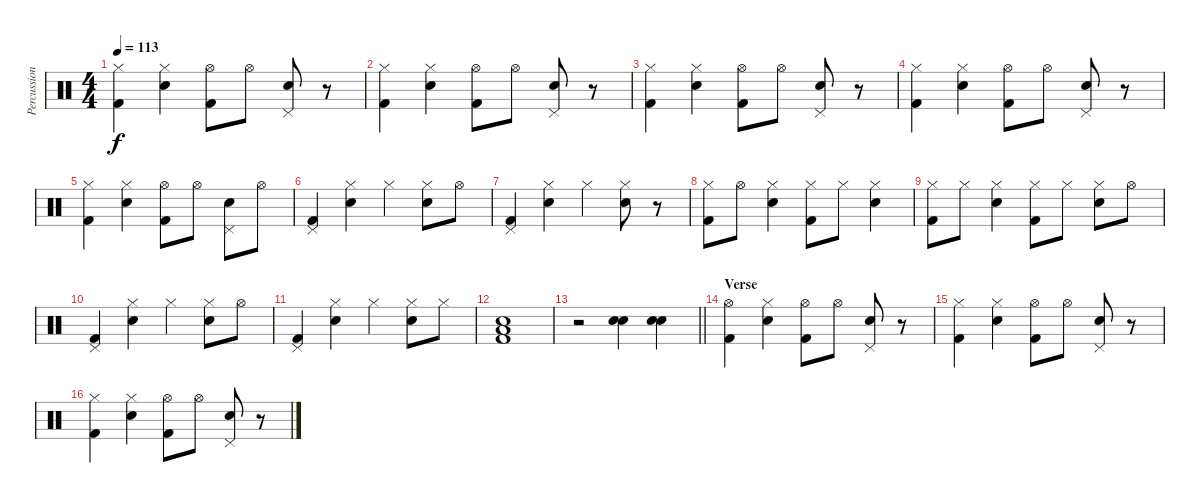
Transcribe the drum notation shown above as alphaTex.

\track ("Percussion" "Percussion") {instrument percussion bank 3}
\staff {score}
\articulation defaults
\ts (4 4)
\tempo 113
\clef neutral
\ks c
("Hi-Hat (closed)" "Kick (hit) 2").4{dy f} ("Hi-Hat (closed)" "Snare (hit) 2").4 ("Hi-Hat (open)" "Kick (hit) 2").8 "Hi-Hat (open)".8 ("Pedal Hi-Hat (hit)" "Snare (hit) 2").8 r.8 |
("Hi-Hat (closed)" "Kick (hit) 2").4 ("Hi-Hat (closed)" "Snare (hit) 2").4 ("Hi-Hat (open)" "Kick (hit) 2").8 "Hi-Hat (open)".8 ("Pedal Hi-Hat (hit)" "Snare (hit) 2").8 r.8 |
("Hi-Hat (closed)" "Kick (hit) 2").4 ("Hi-Hat (closed)" "Snare (hit) 2").4 ("Hi-Hat (open)" "Kick (hit) 2").8 "Hi-Hat (open)".8 ("Pedal Hi-Hat (hit)" "Snare (hit) 2").8 r.8 |
("Hi-Hat (closed)" "Kick (hit) 2").4 ("Hi-Hat (closed)" "Snare (hit) 2").4 ("Hi-Hat (open)" "Kick (hit) 2").8 "Hi-Hat (open)".8 ("Pedal Hi-Hat (hit)" "Snare (hit) 2").8 r.8 |
("Hi-Hat (closed)" "Kick (hit) 2").4 ("Hi-Hat (closed)" "Snare (hit) 2").4 ("Hi-Hat (open)" "Kick (hit) 2").8 "Hi-Hat (open)".8 ("Pedal Hi-Hat (hit)" "Snare (hit) 2").8 "Hi-Hat (open)".8 |
("Pedal Hi-Hat (hit)" "Kick (hit) 2").4 ("Hi-Hat (closed)" "Snare (hit) 2").4 "Hi-Hat (closed)".4 ("Hi-Hat (closed)" "Snare (hit) 2").8 "Hi-Hat (open)".8 |
("Pedal Hi-Hat (hit)" "Kick (hit) 2").4 ("Hi-Hat (closed)" "Snare (hit) 2").4 "Hi-Hat (closed)".4 ("Hi-Hat (closed)" "Snare (hit) 2").8 r.8 |
("Hi-Hat (closed)" "Kick (hit) 2").8 "Hi-Hat (open)".8 ("Hi-Hat (closed)" "Snare (hit) 2").4 ("Hi-Hat (closed)" "Kick (hit) 2").8 "Hi-Hat (closed)".8 ("Hi-Hat (closed)" "Snare (hit) 2").4 |
("Hi-Hat (closed)" "Kick (hit) 2").8 "Hi-Hat (closed)".8 ("Hi-Hat (closed)" "Snare (hit) 2").4 ("Hi-Hat (closed)" "Kick (hit) 2").8 "Hi-Hat (closed)".8 ("Hi-Hat (closed)" "Snare (hit) 2").8 "Hi-Hat (open)".8 |
("Pedal Hi-Hat (hit)" "Kick (hit) 2").4 ("Hi-Hat (closed)" "Snare (hit) 2").4 "Hi-Hat (closed)".4 ("Hi-Hat (closed)" "Snare (hit) 2").8 "Hi-Hat (open)".8 |
("Pedal Hi-Hat (hit)" "Kick (hit) 2").4 ("Hi-Hat (closed)" "Snare (hit) 2").4 "Hi-Hat (closed)".4 ("Hi-Hat (closed)" "Snare (hit) 2").8 "Hi-Hat (closed)".8 |
("Snare (hit) 2" "Low Tom (hit)" "Kick (hit) 2").1 |
\barLineRight lightlight
r.2 ("Snare (hit) 2" "Snare (hit) 2").4 ("Snare (hit) 2" "Snare (hit) 2").4 |
\section ("" "Verse")
("Hi-Hat (open)" "Kick (hit) 2").4 ("Hi-Hat (closed)" "Snare (hit) 2").4 ("Hi-Hat (open)" "Kick (hit) 2").8 "Hi-Hat (open)".8 ("Pedal Hi-Hat (hit)" "Snare (hit) 2").8 r.8 |
("Hi-Hat (closed)" "Kick (hit) 2").4 ("Hi-Hat (closed)" "Snare (hit) 2").4 ("Hi-Hat (open)" "Kick (hit) 2").8 "Hi-Hat (open)".8 ("Pedal Hi-Hat (hit)" "Snare (hit) 2").8 r.8 |
("Hi-Hat (closed)" "Kick (hit) 2").4 ("Hi-Hat (closed)" "Snare (hit) 2").4 ("Hi-Hat (open)" "Kick (hit) 2").8 "Hi-Hat (open)".8 ("Pedal Hi-Hat (hit)" "Snare (hit) 2").8 r.8
